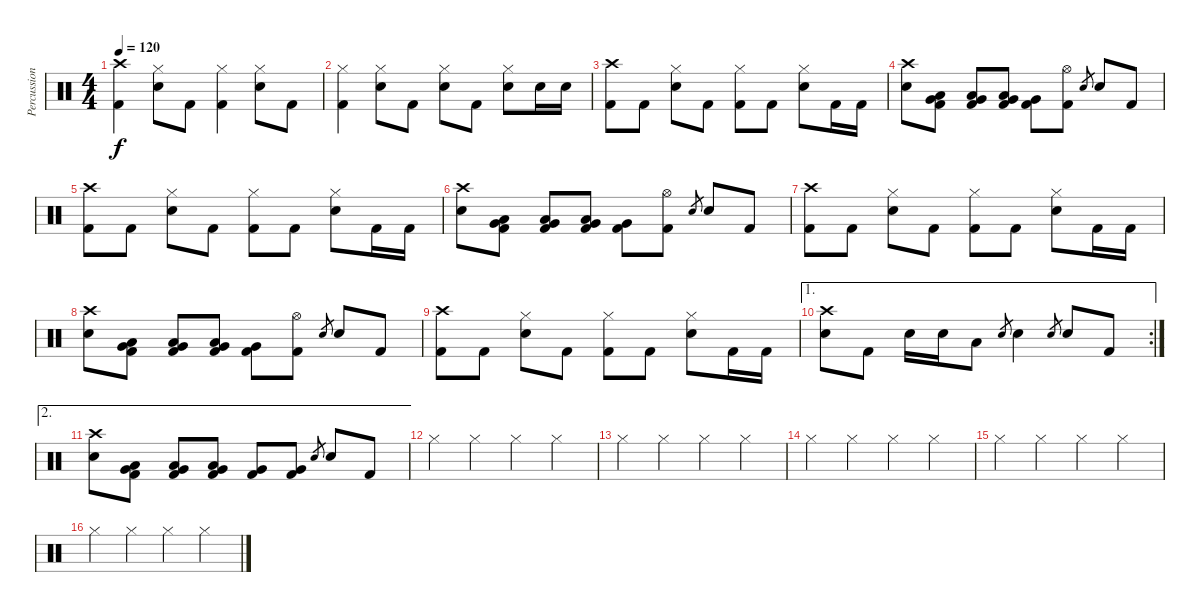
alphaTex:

\track ("Percussions" "Percussion") {instrument percussion}
\staff {score}
\articulation defaults
\ts (4 4)
\tempo 120
\clef neutral
\ks c
("Crash high (hit)" "Kick (hit) 2").4{dy f} ("Hi-Hat (closed)" "Electric Snare (hit)").8 "Kick (hit) 2".8 ("Hi-Hat (closed)" "Kick (hit) 2").4 ("Hi-Hat (closed)" "Electric Snare (hit)").8 "Kick (hit) 2".8 |
("Hi-Hat (closed)" "Kick (hit) 2").4 ("Hi-Hat (closed)" "Electric Snare (hit)").8 "Kick (hit) 2".8 ("Hi-Hat (closed)" "Electric Snare (hit)").8 "Kick (hit) 2".8 ("Hi-Hat (closed)" "Electric Snare (hit)").8 "Electric Snare (hit)".16 "Electric Snare (hit)".16 |
("Crash high (hit)" "Kick (hit) 2").8 "Kick (hit) 2".8 ("Hi-Hat (closed)" "Electric Snare (hit)").8 "Kick (hit) 2".8 ("Hi-Hat (closed)" "Kick (hit) 2").8 "Kick (hit) 2".8 ("Hi-Hat (closed)" "Electric Snare (hit)").8 "Kick (hit) 2".16 "Kick (hit) 2".16 |
("Crash high (hit)" "Electric Snare (hit)").8 ("Low Tom (hit)" "Very Low Tom (hit)" "Kick (hit) 2").8 ("Low Tom (hit)" "Very Low Tom (hit)" "Kick (hit) 2").8 ("Low Tom (hit)" "Very Low Tom (hit)" "Kick (hit) 2").8 ("Very Low Tom (hit)" "Kick (hit) 2").8 ("Hi-Hat (open)" "Kick (hit) 2").8 "Electric Snare (hit)".8{gr} "Electric Snare (hit)".8 "Kick (hit) 2".8 |
("Crash high (hit)" "Kick (hit) 2").8 "Kick (hit) 2".8 ("Hi-Hat (closed)" "Electric Snare (hit)").8 "Kick (hit) 2".8 ("Hi-Hat (closed)" "Kick (hit) 2").8 "Kick (hit) 2".8 ("Hi-Hat (closed)" "Electric Snare (hit)").8 "Kick (hit) 2".16 "Kick (hit) 2".16 |
("Crash high (hit)" "Electric Snare (hit)").8 ("Low Tom (hit)" "Very Low Tom (hit)" "Kick (hit) 2").8 ("Low Tom (hit)" "Very Low Tom (hit)" "Kick (hit) 2").8 ("Low Tom (hit)" "Very Low Tom (hit)" "Kick (hit) 2").8 ("Very Low Tom (hit)" "Kick (hit) 2").8 ("Hi-Hat (open)" "Kick (hit) 2").8 "Electric Snare (hit)".8{gr} "Electric Snare (hit)".8 "Kick (hit) 2".8 |
("Crash high (hit)" "Kick (hit) 2").8 "Kick (hit) 2".8 ("Hi-Hat (closed)" "Electric Snare (hit)").8 "Kick (hit) 2".8 ("Hi-Hat (closed)" "Kick (hit) 2").8 "Kick (hit) 2".8 ("Hi-Hat (closed)" "Electric Snare (hit)").8 "Kick (hit) 2".16 "Kick (hit) 2".16 |
("Crash high (hit)" "Electric Snare (hit)").8 ("Low Tom (hit)" "Very Low Tom (hit)" "Kick (hit) 2").8 ("Low Tom (hit)" "Very Low Tom (hit)" "Kick (hit) 2").8 ("Low Tom (hit)" "Very Low Tom (hit)" "Kick (hit) 2").8 ("Very Low Tom (hit)" "Kick (hit) 2").8 ("Hi-Hat (open)" "Kick (hit) 2").8 "Electric Snare (hit)".8{gr} "Electric Snare (hit)".8 "Kick (hit) 2".8 |
("Crash high (hit)" "Kick (hit) 2").8 "Kick (hit) 2".8 ("Hi-Hat (closed)" "Electric Snare (hit)").8 "Kick (hit) 2".8 ("Hi-Hat (closed)" "Kick (hit) 2").8 "Kick (hit) 2".8 ("Hi-Hat (closed)" "Electric Snare (hit)").8 "Kick (hit) 2".16 "Kick (hit) 2".16 |
\ae 1
\rc 2
("Crash high (hit)" "Electric Snare (hit)").8 "Kick (hit) 2".8 "Electric Snare (hit)".16 "Electric Snare (hit)".16 "Low Tom (hit)".8 "Electric Snare (hit)".8{gr} "Electric Snare (hit)".4 "Electric Snare (hit)".8{gr} "Electric Snare (hit)".8 "Kick (hit) 2".8 |
\ae 2
("Crash high (hit)" "Electric Snare (hit)").8 ("Low Tom (hit)" "Very Low Tom (hit)" "Kick (hit) 2").8 ("Low Tom (hit)" "Very Low Tom (hit)" "Kick (hit) 2").8 ("Low Tom (hit)" "Very Low Tom (hit)" "Kick (hit) 2").8 ("Very Low Tom (hit)" "Kick (hit) 2").8 ("Very Low Tom (hit)" "Kick (hit) 2").8 "Electric Snare (hit)".8{gr} "Electric Snare (hit)".8 "Kick (hit) 2".8 |
"Hi-Hat (closed)".4 "Hi-Hat (closed)".4 "Hi-Hat (closed)".4 "Hi-Hat (closed)".4 |
"Hi-Hat (closed)".4 "Hi-Hat (closed)".4 "Hi-Hat (closed)".4 "Hi-Hat (closed)".4 |
"Hi-Hat (closed)".4 "Hi-Hat (closed)".4 "Hi-Hat (closed)".4 "Hi-Hat (closed)".4 |
"Hi-Hat (closed)".4 "Hi-Hat (closed)".4 "Hi-Hat (closed)".4 "Hi-Hat (closed)".4 |
"Hi-Hat (closed)".4 "Hi-Hat (closed)".4 "Hi-Hat (closed)".4 "Hi-Hat (closed)".4
